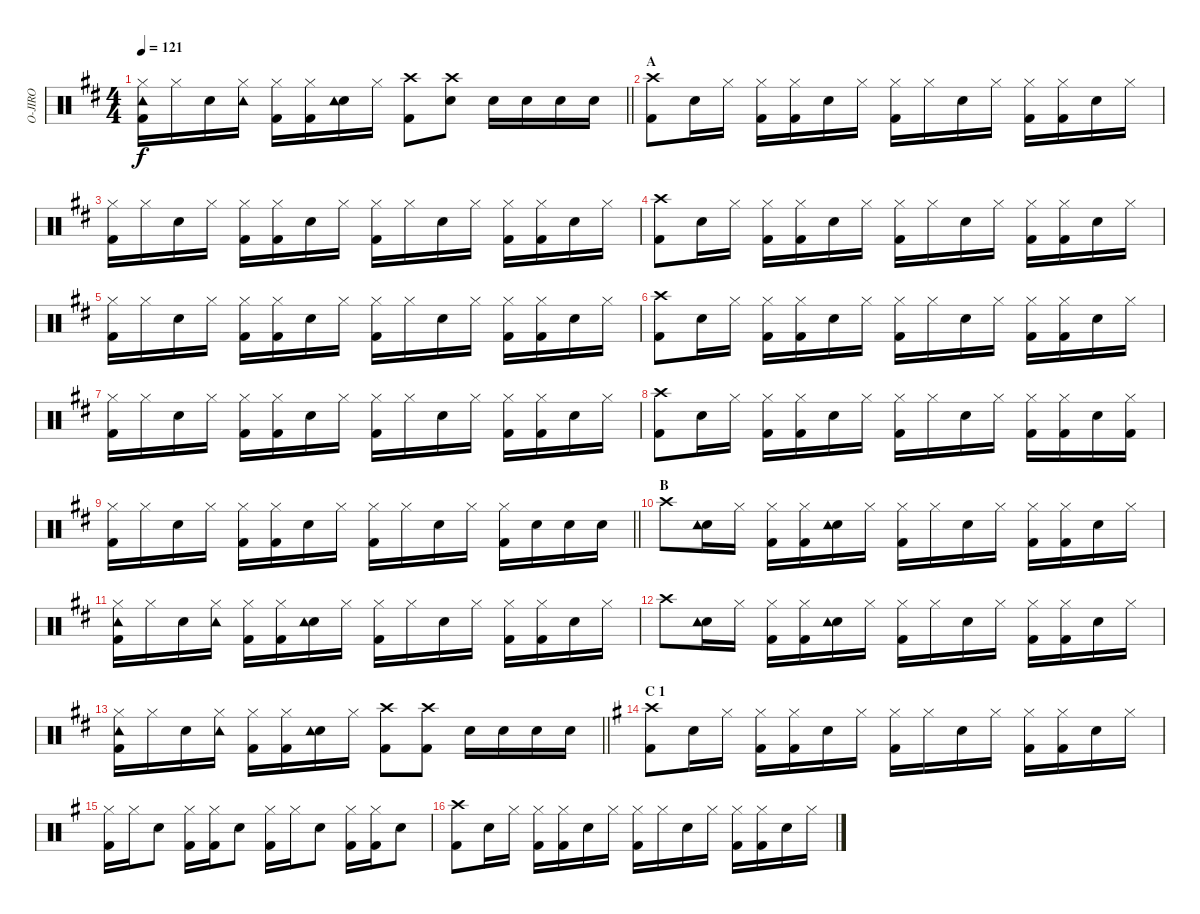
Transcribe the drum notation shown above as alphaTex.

\track ("O-JIRO" "O-JIRO") {instrument percussion}
\staff {score}
\articulation defaults
\ts (4 4)
\tempo 121
\clef neutral
\barLineRight lightlight
\ks d
("Hi-Hat (closed)" "Kick (hit) 2" "Tambourine (hit)").16{dy f} "Hi-Hat (closed)".16 "Snare (hit) 2".16 ("Hi-Hat (closed)" "Tambourine (hit)").16 ("Hi-Hat (closed)" "Kick (hit) 2").16 ("Hi-Hat (closed)" "Kick (hit) 2").16 ("Snare (hit) 2" "Tambourine (hit)").16 "Hi-Hat (closed)".16 ("Crash high (hit)" "Kick (hit) 2").8 ("Crash high (hit)" "Snare (hit) 2").8 "Snare (hit) 2".16 "Snare (hit) 2".16 "Snare (hit) 2".16 "Snare (hit) 2".16 |
\section ("" "A ")
("Crash high (hit)" "Kick (hit) 2").8 "Snare (hit) 2".16 "Hi-Hat (closed)".16 ("Hi-Hat (closed)" "Kick (hit) 2").16 ("Hi-Hat (closed)" "Kick (hit) 2").16 "Snare (hit) 2".16 "Hi-Hat (closed)".16 ("Hi-Hat (closed)" "Kick (hit) 2").16 "Hi-Hat (closed)".16 "Snare (hit) 2".16 "Hi-Hat (closed)".16 ("Hi-Hat (closed)" "Kick (hit) 2").16 ("Hi-Hat (closed)" "Kick (hit) 2").16 "Snare (hit) 2".16 "Hi-Hat (closed)".16 |
("Hi-Hat (closed)" "Kick (hit) 2").16 "Hi-Hat (closed)".16 "Snare (hit) 2".16 "Hi-Hat (closed)".16 ("Hi-Hat (closed)" "Kick (hit) 2").16 ("Hi-Hat (closed)" "Kick (hit) 2").16 "Snare (hit) 2".16 "Hi-Hat (closed)".16 ("Hi-Hat (closed)" "Kick (hit) 2").16 "Hi-Hat (closed)".16 "Snare (hit) 2".16 "Hi-Hat (closed)".16 ("Hi-Hat (closed)" "Kick (hit) 2").16 ("Hi-Hat (closed)" "Kick (hit) 2").16 "Snare (hit) 2".16 "Hi-Hat (closed)".16 |
("Crash high (hit)" "Kick (hit) 2").8 "Snare (hit) 2".16 "Hi-Hat (closed)".16 ("Hi-Hat (closed)" "Kick (hit) 2").16 ("Hi-Hat (closed)" "Kick (hit) 2").16 "Snare (hit) 2".16 "Hi-Hat (closed)".16 ("Hi-Hat (closed)" "Kick (hit) 2").16 "Hi-Hat (closed)".16 "Snare (hit) 2".16 "Hi-Hat (closed)".16 ("Hi-Hat (closed)" "Kick (hit) 2").16 ("Hi-Hat (closed)" "Kick (hit) 2").16 "Snare (hit) 2".16 "Hi-Hat (closed)".16 |
("Hi-Hat (closed)" "Kick (hit) 2").16 "Hi-Hat (closed)".16 "Snare (hit) 2".16 "Hi-Hat (closed)".16 ("Hi-Hat (closed)" "Kick (hit) 2").16 ("Hi-Hat (closed)" "Kick (hit) 2").16 "Snare (hit) 2".16 "Hi-Hat (closed)".16 ("Hi-Hat (closed)" "Kick (hit) 2").16 "Hi-Hat (closed)".16 "Snare (hit) 2".16 "Hi-Hat (closed)".16 ("Hi-Hat (closed)" "Kick (hit) 2").16 ("Hi-Hat (closed)" "Kick (hit) 2").16 "Snare (hit) 2".16 "Hi-Hat (closed)".16 |
("Crash high (hit)" "Kick (hit) 2").8 "Snare (hit) 2".16 "Hi-Hat (closed)".16 ("Hi-Hat (closed)" "Kick (hit) 2").16 ("Hi-Hat (closed)" "Kick (hit) 2").16 "Snare (hit) 2".16 "Hi-Hat (closed)".16 ("Hi-Hat (closed)" "Kick (hit) 2").16 "Hi-Hat (closed)".16 "Snare (hit) 2".16 "Hi-Hat (closed)".16 ("Hi-Hat (closed)" "Kick (hit) 2").16 ("Hi-Hat (closed)" "Kick (hit) 2").16 "Snare (hit) 2".16 "Hi-Hat (closed)".16 |
("Hi-Hat (closed)" "Kick (hit) 2").16 "Hi-Hat (closed)".16 "Snare (hit) 2".16 "Hi-Hat (closed)".16 ("Hi-Hat (closed)" "Kick (hit) 2").16 ("Hi-Hat (closed)" "Kick (hit) 2").16 "Snare (hit) 2".16 "Hi-Hat (closed)".16 ("Hi-Hat (closed)" "Kick (hit) 2").16 "Hi-Hat (closed)".16 "Snare (hit) 2".16 "Hi-Hat (closed)".16 ("Hi-Hat (closed)" "Kick (hit) 2").16 ("Hi-Hat (closed)" "Kick (hit) 2").16 "Snare (hit) 2".16 "Hi-Hat (closed)".16 |
("Crash high (hit)" "Kick (hit) 2").8 "Snare (hit) 2".16 "Hi-Hat (closed)".16 ("Hi-Hat (closed)" "Kick (hit) 2").16 ("Hi-Hat (closed)" "Kick (hit) 2").16 "Snare (hit) 2".16 "Hi-Hat (closed)".16 ("Hi-Hat (closed)" "Kick (hit) 2").16 "Hi-Hat (closed)".16 "Snare (hit) 2".16 "Hi-Hat (closed)".16 ("Hi-Hat (closed)" "Kick (hit) 2").16 ("Hi-Hat (closed)" "Kick (hit) 2").16 "Snare (hit) 2".16 ("Hi-Hat (closed)" "Kick (hit) 2").16 |
\barLineRight lightlight
("Hi-Hat (closed)" "Kick (hit) 2").16 "Hi-Hat (closed)".16 "Snare (hit) 2".16 "Hi-Hat (closed)".16 ("Hi-Hat (closed)" "Kick (hit) 2").16 ("Hi-Hat (closed)" "Kick (hit) 2").16 "Snare (hit) 2".16 "Hi-Hat (closed)".16 ("Hi-Hat (closed)" "Kick (hit) 2").16 "Hi-Hat (closed)".16 "Snare (hit) 2".16 "Hi-Hat (closed)".16 ("Hi-Hat (closed)" "Kick (hit) 2").16 "Snare (hit) 2".16 "Snare (hit) 2".16 "Snare (hit) 2".16 |
\section ("" "B ")
"Crash high (hit)".8 ("Snare (hit) 2" "Tambourine (hit)").16 "Hi-Hat (closed)".16 ("Hi-Hat (closed)" "Kick (hit) 2").16 ("Hi-Hat (closed)" "Kick (hit) 2").16 ("Snare (hit) 2" "Tambourine (hit)").16 "Hi-Hat (closed)".16 ("Hi-Hat (closed)" "Kick (hit) 2").16 "Hi-Hat (closed)".16 "Snare (hit) 2".16 "Hi-Hat (closed)".16 ("Hi-Hat (closed)" "Kick (hit) 2").16 ("Hi-Hat (closed)" "Kick (hit) 2").16 "Snare (hit) 2".16 "Hi-Hat (closed)".16 |
("Hi-Hat (closed)" "Kick (hit) 2" "Tambourine (hit)").16 "Hi-Hat (closed)".16 "Snare (hit) 2".16 ("Hi-Hat (closed)" "Tambourine (hit)").16 ("Hi-Hat (closed)" "Kick (hit) 2").16 ("Hi-Hat (closed)" "Kick (hit) 2").16 ("Snare (hit) 2" "Tambourine (hit)").16 "Hi-Hat (closed)".16 ("Hi-Hat (closed)" "Kick (hit) 2").16 "Hi-Hat (closed)".16 "Snare (hit) 2".16 "Hi-Hat (closed)".16 ("Hi-Hat (closed)" "Kick (hit) 2").16 ("Hi-Hat (closed)" "Kick (hit) 2").16 "Snare (hit) 2".16 "Hi-Hat (closed)".16 |
"Crash high (hit)".8 ("Snare (hit) 2" "Tambourine (hit)").16 "Hi-Hat (closed)".16 ("Hi-Hat (closed)" "Kick (hit) 2").16 ("Hi-Hat (closed)" "Kick (hit) 2").16 ("Snare (hit) 2" "Tambourine (hit)").16 "Hi-Hat (closed)".16 ("Hi-Hat (closed)" "Kick (hit) 2").16 "Hi-Hat (closed)".16 "Snare (hit) 2".16 "Hi-Hat (closed)".16 ("Hi-Hat (closed)" "Kick (hit) 2").16 ("Hi-Hat (closed)" "Kick (hit) 2").16 "Snare (hit) 2".16 "Hi-Hat (closed)".16 |
\barLineRight lightlight
("Hi-Hat (closed)" "Kick (hit) 2" "Tambourine (hit)").16 "Hi-Hat (closed)".16 "Snare (hit) 2".16 ("Hi-Hat (closed)" "Tambourine (hit)").16 ("Hi-Hat (closed)" "Kick (hit) 2").16 ("Hi-Hat (closed)" "Kick (hit) 2").16 ("Snare (hit) 2" "Tambourine (hit)").16 "Hi-Hat (closed)".16 ("Crash high (hit)" "Kick (hit) 2").8 ("Crash high (hit)" "Kick (hit) 2").8 "Snare (hit) 2".16 "Snare (hit) 2".16 "Snare (hit) 2".16 "Snare (hit) 2".16 |
\section ("" "C 1")
\ks g
("Crash high (hit)" "Kick (hit) 2").8 "Snare (hit) 2".16 "Hi-Hat (closed)".16 ("Hi-Hat (closed)" "Kick (hit) 2").16 ("Hi-Hat (closed)" "Kick (hit) 2").16 "Snare (hit) 2".16 "Hi-Hat (closed)".16 ("Hi-Hat (closed)" "Kick (hit) 2").16 "Hi-Hat (closed)".16 "Snare (hit) 2".16 "Hi-Hat (closed)".16 ("Hi-Hat (closed)" "Kick (hit) 2").16 ("Hi-Hat (closed)" "Kick (hit) 2").16 "Snare (hit) 2".16 "Hi-Hat (closed)".16 |
("Hi-Hat (closed)" "Kick (hit) 2").16 "Hi-Hat (closed)".16 "Snare (hit) 2".8 ("Hi-Hat (closed)" "Kick (hit) 2").16 ("Hi-Hat (closed)" "Kick (hit) 2").16 "Snare (hit) 2".8 ("Hi-Hat (closed)" "Kick (hit) 2").16 "Hi-Hat (closed)".16 "Snare (hit) 2".8 ("Hi-Hat (closed)" "Kick (hit) 2").16 ("Hi-Hat (closed)" "Kick (hit) 2").16 "Snare (hit) 2".8 |
("Crash high (hit)" "Kick (hit) 2").8 "Snare (hit) 2".16 "Hi-Hat (closed)".16 ("Hi-Hat (closed)" "Kick (hit) 2").16 ("Hi-Hat (closed)" "Kick (hit) 2").16 "Snare (hit) 2".16 "Hi-Hat (closed)".16 ("Hi-Hat (closed)" "Kick (hit) 2").16 "Hi-Hat (closed)".16 "Snare (hit) 2".16 "Hi-Hat (closed)".16 ("Hi-Hat (closed)" "Kick (hit) 2").16 ("Hi-Hat (closed)" "Kick (hit) 2").16 "Snare (hit) 2".16 "Hi-Hat (closed)".16
